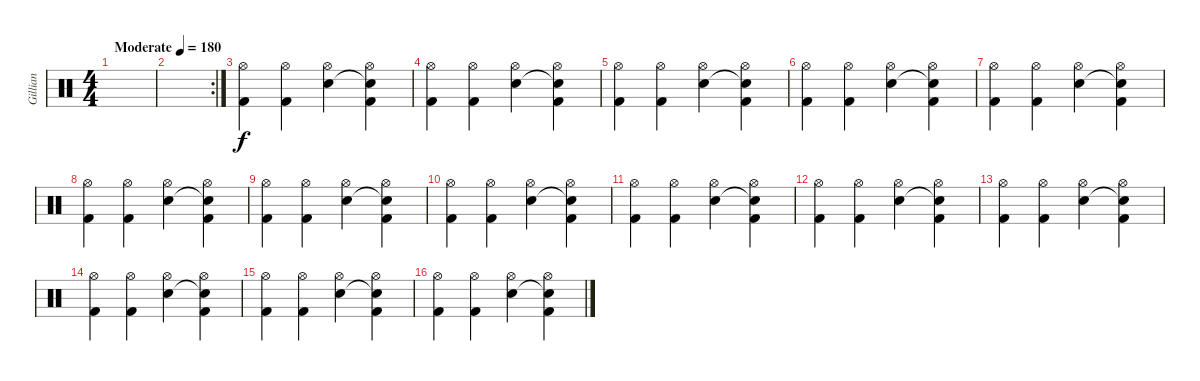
\track ("Gillian" "Gillian") {instrument percussion}
\staff {score}
\articulation defaults
\ts (4 4)
\tempo (180 "Moderate")
\clef neutral
\ks c
|
\rc 2
|
("Hi-Hat (open)" "Kick (hit) 2").4 ("Hi-Hat (open)" "Kick (hit) 2").4 ("Hi-Hat (open)" "Electric Snare (hit)").4 ("Hi-Hat (open)" "Snare (hit)"{t} "Kick (hit) 2").4 |
("Hi-Hat (open)" "Kick (hit) 2").4 ("Hi-Hat (open)" "Kick (hit) 2").4 ("Hi-Hat (open)" "Electric Snare (hit)").4 ("Hi-Hat (open)" "Snare (hit)"{t} "Kick (hit) 2").4 |
("Hi-Hat (open)" "Kick (hit) 2").4 ("Hi-Hat (open)" "Kick (hit) 2").4 ("Hi-Hat (open)" "Electric Snare (hit)").4 ("Hi-Hat (open)" "Snare (hit)"{t} "Kick (hit) 2").4 |
("Hi-Hat (open)" "Kick (hit) 2").4 ("Hi-Hat (open)" "Kick (hit) 2").4 ("Hi-Hat (open)" "Electric Snare (hit)").4 ("Hi-Hat (open)" "Snare (hit)"{t} "Kick (hit) 2").4 |
("Hi-Hat (open)" "Kick (hit) 2").4 ("Hi-Hat (open)" "Kick (hit) 2").4 ("Hi-Hat (open)" "Electric Snare (hit)").4 ("Hi-Hat (open)" "Snare (hit)"{t} "Kick (hit) 2").4 |
("Hi-Hat (open)" "Kick (hit) 2").4 ("Hi-Hat (open)" "Kick (hit) 2").4 ("Hi-Hat (open)" "Electric Snare (hit)").4 ("Hi-Hat (open)" "Snare (hit)"{t} "Kick (hit) 2").4 |
("Hi-Hat (open)" "Kick (hit) 2").4 ("Hi-Hat (open)" "Kick (hit) 2").4 ("Hi-Hat (open)" "Electric Snare (hit)").4 ("Hi-Hat (open)" "Snare (hit)"{t} "Kick (hit) 2").4 |
("Hi-Hat (open)" "Kick (hit) 2").4 ("Hi-Hat (open)" "Kick (hit) 2").4 ("Hi-Hat (open)" "Electric Snare (hit)").4 ("Hi-Hat (open)" "Snare (hit)"{t} "Kick (hit) 2").4 |
("Hi-Hat (open)" "Kick (hit) 2").4 ("Hi-Hat (open)" "Kick (hit) 2").4 ("Hi-Hat (open)" "Electric Snare (hit)").4 ("Hi-Hat (open)" "Snare (hit)"{t} "Kick (hit) 2").4 |
("Hi-Hat (open)" "Kick (hit) 2").4 ("Hi-Hat (open)" "Kick (hit) 2").4 ("Hi-Hat (open)" "Electric Snare (hit)").4 ("Hi-Hat (open)" "Snare (hit)"{t} "Kick (hit) 2").4 |
("Hi-Hat (open)" "Kick (hit) 2").4 ("Hi-Hat (open)" "Kick (hit) 2").4 ("Hi-Hat (open)" "Electric Snare (hit)").4 ("Hi-Hat (open)" "Snare (hit)"{t} "Kick (hit) 2").4 |
("Hi-Hat (open)" "Kick (hit) 2").4 ("Hi-Hat (open)" "Kick (hit) 2").4 ("Hi-Hat (open)" "Electric Snare (hit)").4 ("Hi-Hat (open)" "Snare (hit)"{t} "Kick (hit) 2").4 |
("Hi-Hat (open)" "Kick (hit) 2").4 ("Hi-Hat (open)" "Kick (hit) 2").4 ("Hi-Hat (open)" "Electric Snare (hit)").4 ("Hi-Hat (open)" "Snare (hit)"{t} "Kick (hit) 2").4 |
("Hi-Hat (open)" "Kick (hit) 2").4 ("Hi-Hat (open)" "Kick (hit) 2").4 ("Hi-Hat (open)" "Electric Snare (hit)").4 ("Hi-Hat (open)" "Snare (hit)"{t} "Kick (hit) 2").4
